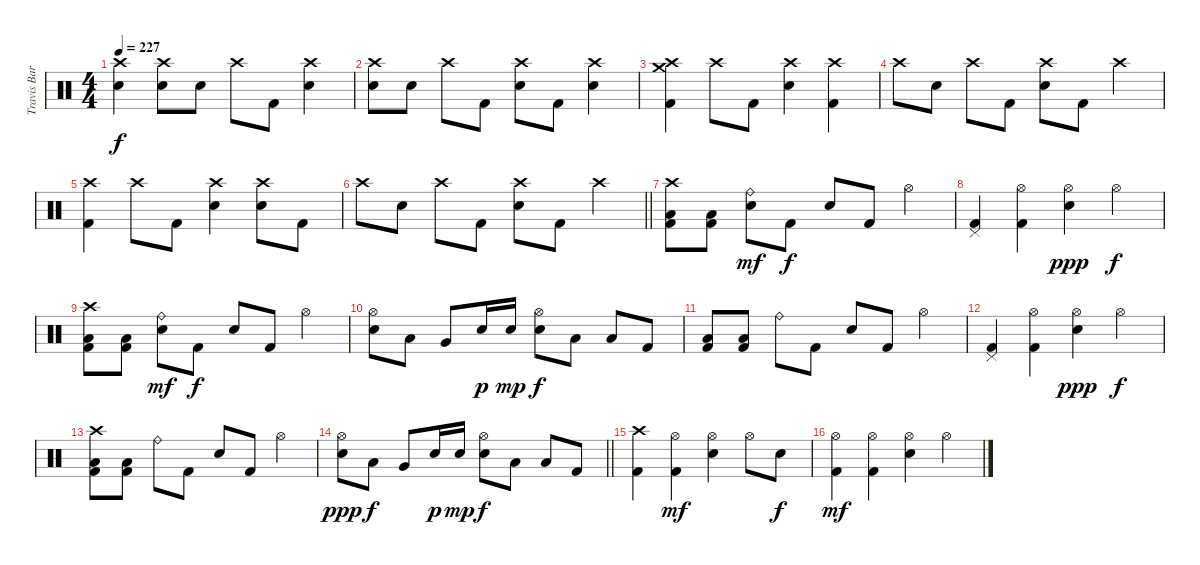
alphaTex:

\track ("Travis Barker - Drum" "Travis Bar") {instrument percussion}
\staff {score}
\articulation defaults
\ts (4 4)
\tempo 227
\clef neutral
\ks c
("Crash high (hit)" "Electric Snare (hit)").4{dy f} ("Crash high (hit)" "Electric Snare (hit)").8 "Electric Snare (hit)".8 "Crash high (hit)".8 "Kick (hit) 2".8 ("Crash high (hit)" "Electric Snare (hit)").4 |
("Crash high (hit)" "Electric Snare (hit)").8 "Electric Snare (hit)".8 "Crash high (hit)".8 "Kick (hit) 2".8 ("Crash high (hit)" "Electric Snare (hit)").8 "Kick (hit) 2".8 ("Crash high (hit)" "Electric Snare (hit)").4 |
("Crash medium (hit)" "Crash high (hit)" "Kick (hit) 2").4 "Crash high (hit)".8 "Kick (hit) 2".8 ("Crash high (hit)" "Electric Snare (hit)").4 ("Crash high (hit)" "Kick (hit) 2").4 |
"Crash high (hit)".8 "Electric Snare (hit)".8 "Crash high (hit)".8 "Kick (hit) 2".8 ("Crash high (hit)" "Electric Snare (hit)").8 "Kick (hit) 2".8 "Crash high (hit)".4 |
("Crash high (hit)" "Kick (hit) 2").4 "Crash high (hit)".8 "Kick (hit) 2".8 ("Crash high (hit)" "Electric Snare (hit)").4 ("Crash high (hit)" "Electric Snare (hit)").8 "Kick (hit) 2".8 |
\barLineRight lightlight "Crash high (hit)".8 "Electric Snare (hit)".8 "Crash high (hit)".8 "Kick (hit) 2".8
("Crash high (hit)" "Electric Snare (hit)").8 "Kick (hit) 2".8 "Crash high (hit)".4 |
("Crash high (hit)" "Low Floor Tom (hit)" "Kick (hit) 2").8 ("Low Floor Tom (hit)" "Kick (hit) 2").8 ("Electric Snare (hit)" "Ride (bell)").8{dy mf} "Kick (hit) 2".8{dy f} "Electric Snare (hit)".8 "Kick (hit) 2".8 "Hi-Hat (open)".4 |
("Pedal Hi-Hat (hit)" "Kick (hit) 2").4 ("Hi-Hat (open)" "Kick (hit) 2").4 ("Hi-Hat (open)" "Electric Snare (hit)").4{dy ppp} "Hi-Hat (open)".4{dy f} |
("Crash high (hit)" "Low Floor Tom (hit)" "Kick (hit) 2").8 ("Low Floor Tom (hit)" "Kick (hit) 2").8 ("Ride (bell)" "Electric Snare (hit)").8{dy mf} "Kick (hit) 2".8{dy f} "Electric Snare (hit)".8 "Kick (hit) 2".8 "Hi-Hat (open)".4 |
("Hi-Hat (open)" "Electric Snare (hit)").8 "Low Tom (hit)".8 "Very Low Tom (hit)".8 "Electric Snare (hit)".16{dy p} "Electric Snare (hit)".16{dy mp} ("Electric Snare (hit)" "Hi-Hat (open)").8{dy f} "Low Tom (hit)".8 "Low Floor Tom (hit)".8 "Kick (hit) 2".8 |
("Low Floor Tom (hit)" "Kick (hit) 2").8 ("Low Floor Tom (hit)" "Kick (hit) 2").8 "Ride (bell)".8 "Kick (hit) 2".8 "Electric Snare (hit)".8 "Kick (hit) 2".8 "Hi-Hat (open)".4 |
("Pedal Hi-Hat (hit)" "Kick (hit) 2").4 ("Hi-Hat (open)" "Kick (hit) 2").4 ("Hi-Hat (open)" "Electric Snare (hit)").4{dy ppp} "Hi-Hat (open)".4{dy f} |
("Crash high (hit)" "Low Floor Tom (hit)" "Kick (hit) 2").8 ("Low Floor Tom (hit)" "Kick (hit) 2").8 "Ride (bell)".8 "Kick (hit) 2".8 "Electric Snare (hit)".8 "Kick (hit) 2".8 "Hi-Hat (open)".4 |
\barLineRight lightlight
("Hi-Hat (open)" "Electric Snare (hit)").8{dy ppp} "Low Tom (hit)".8{dy f} "Very Low Tom (hit)".8 "Electric Snare (hit)".16{dy p} "Electric Snare (hit)".16{dy mp} ("Hi-Hat (open)" "Electric Snare (hit)").8{dy f} "Low Tom (hit)".8 "Low Floor Tom (hit)".8 "Kick (hit) 2".8 |
("Crash high (hit)" "Kick (hit) 2").4 ("Hi-Hat (open)" "Kick (hit) 2").4{dy mf} ("Hi-Hat (open)" "Electric Snare (hit)").4 "Hi-Hat (open)".8 "Electric Snare (hit)".8{dy f} |
("Hi-Hat (open)" "Kick (hit) 2").4{dy mf} ("Hi-Hat (open)" "Kick (hit) 2").4 ("Hi-Hat (open)" "Electric Snare (hit)").4 "Hi-Hat (open)".4
